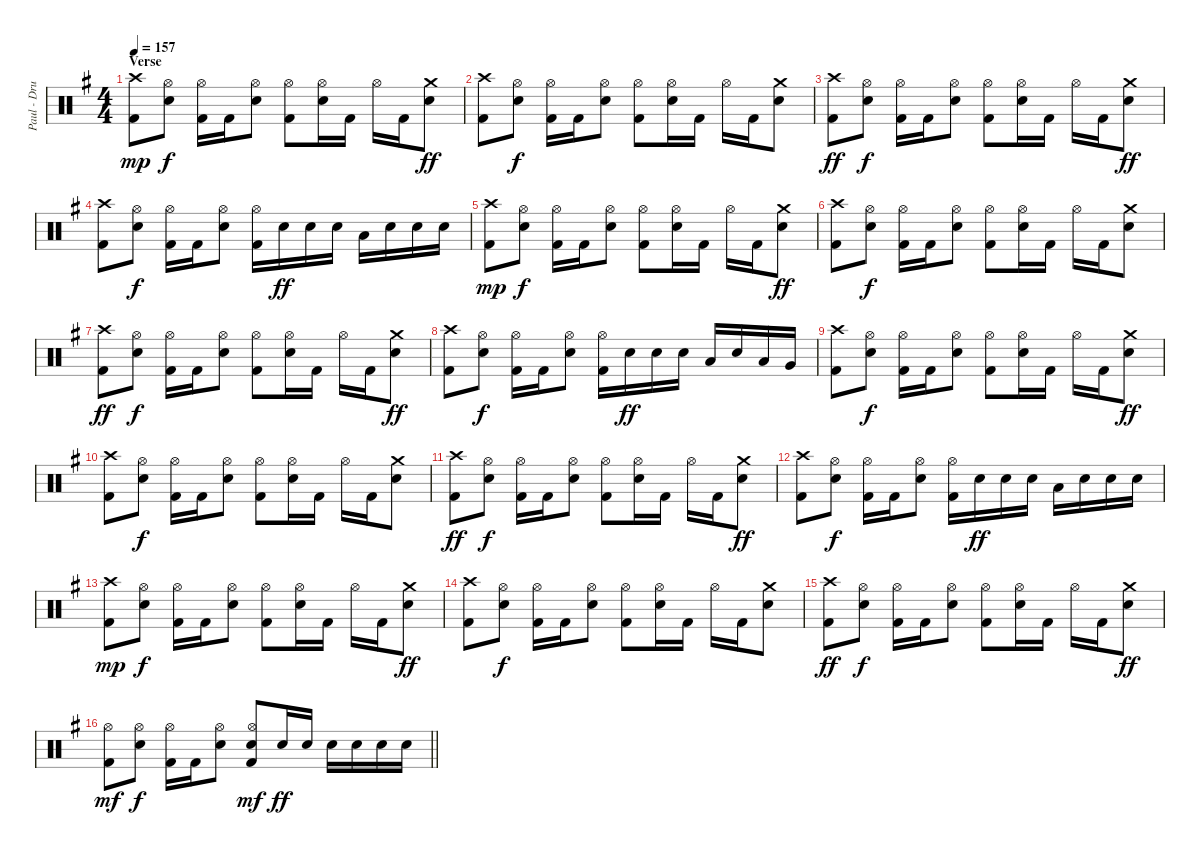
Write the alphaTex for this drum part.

\track ("Paul - Drums" "Paul - Dru") {instrument percussion}
\staff {score}
\articulation defaults
\ts (4 4)
\section ("" "Verse")
\tempo 157
\clef neutral
\ks g
("Crash high (hit)" "Kick (hit) 2").8{dy mp} ("Hi-Hat (open)" "Electric Snare (hit)").8{dy f} ("Hi-Hat (open)" "Kick (hit) 2").16 "Kick (hit) 2".16 ("Hi-Hat (open)" "Electric Snare (hit)").8 ("Hi-Hat (open)" "Kick (hit) 2").8 ("Hi-Hat (open)" "Electric Snare (hit)").16 "Kick (hit) 2".16 "Hi-Hat (open)".16 "Kick (hit) 2".16 ("Crash medium (hit)" "Electric Snare (hit)").8{dy ff} |
("Crash high (hit)" "Kick (hit) 2").8 ("Hi-Hat (open)" "Electric Snare (hit)").8{dy f} ("Hi-Hat (open)" "Kick (hit) 2").16 "Kick (hit) 2".16 ("Hi-Hat (open)" "Electric Snare (hit)").8 ("Hi-Hat (open)" "Kick (hit) 2").8 ("Hi-Hat (open)" "Electric Snare (hit)").16 "Kick (hit) 2".16 "Hi-Hat (open)".16 "Kick (hit) 2".16 ("Crash medium (hit)" "Electric Snare (hit)").8 |
("Crash high (hit)" "Kick (hit) 2").8{dy ff} ("Hi-Hat (open)" "Electric Snare (hit)").8{dy f} ("Hi-Hat (open)" "Kick (hit) 2").16 "Kick (hit) 2".16 ("Hi-Hat (open)" "Electric Snare (hit)").8 ("Hi-Hat (open)" "Kick (hit) 2").8 ("Hi-Hat (open)" "Electric Snare (hit)").16 "Kick (hit) 2".16 "Hi-Hat (open)".16 "Kick (hit) 2".16 ("Crash medium (hit)" "Electric Snare (hit)").8{dy ff} |
("Crash high (hit)" "Kick (hit) 2").8 ("Hi-Hat (open)" "Electric Snare (hit)").8{dy f} ("Hi-Hat (open)" "Kick (hit) 2").16 "Kick (hit) 2".16 ("Hi-Hat (open)" "Electric Snare (hit)").8 ("Hi-Hat (open)" "Kick (hit) 2").16 "Electric Snare (hit)".16{dy ff} "Electric Snare (hit)".16 "Electric Snare (hit)".16 "Low Tom (hit)".16 "Electric Snare (hit)".16 "Electric Snare (hit)".16 "Electric Snare (hit)".16 |
("Crash high (hit)" "Kick (hit) 2").8{dy mp} ("Hi-Hat (open)" "Electric Snare (hit)").8{dy f} ("Hi-Hat (open)" "Kick (hit) 2").16 "Kick (hit) 2".16 ("Hi-Hat (open)" "Electric Snare (hit)").8 ("Hi-Hat (open)" "Kick (hit) 2").8 ("Hi-Hat (open)" "Electric Snare (hit)").16 "Kick (hit) 2".16 "Hi-Hat (open)".16 "Kick (hit) 2".16 ("Crash medium (hit)" "Electric Snare (hit)").8{dy ff} |
("Crash high (hit)" "Kick (hit) 2").8 ("Hi-Hat (open)" "Electric Snare (hit)").8{dy f} ("Hi-Hat (open)" "Kick (hit) 2").16 "Kick (hit) 2".16 ("Hi-Hat (open)" "Electric Snare (hit)").8 ("Hi-Hat (open)" "Kick (hit) 2").8 ("Hi-Hat (open)" "Electric Snare (hit)").16 "Kick (hit) 2".16 "Hi-Hat (open)".16 "Kick (hit) 2".16 ("Crash medium (hit)" "Electric Snare (hit)").8 |
("Crash high (hit)" "Kick (hit) 2").8{dy ff} ("Hi-Hat (open)" "Electric Snare (hit)").8{dy f} ("Hi-Hat (open)" "Kick (hit) 2").16 "Kick (hit) 2".16 ("Hi-Hat (open)" "Electric Snare (hit)").8 ("Hi-Hat (open)" "Kick (hit) 2").8 ("Hi-Hat (open)" "Electric Snare (hit)").16 "Kick (hit) 2".16 "Hi-Hat (open)".16 "Kick (hit) 2".16 ("Crash medium (hit)" "Electric Snare (hit)").8{dy ff} |
("Crash high (hit)" "Kick (hit) 2").8 ("Hi-Hat (open)" "Electric Snare (hit)").8{dy f} ("Hi-Hat (open)" "Kick (hit) 2").16 "Kick (hit) 2".16 ("Hi-Hat (open)" "Electric Snare (hit)").8 ("Hi-Hat (open)" "Kick (hit) 2").16 "Electric Snare (hit)".16{dy ff} "Electric Snare (hit)".16 "Electric Snare (hit)".16 "Low Tom (hit)".16 "Electric Snare (hit)".16 "Low Tom (hit)".16 "Very Low Tom (hit)".16 |
("Crash high (hit)" "Kick (hit) 2").8 ("Hi-Hat (open)" "Electric Snare (hit)").8{dy f} ("Hi-Hat (open)" "Kick (hit) 2").16 "Kick (hit) 2".16 ("Hi-Hat (open)" "Electric Snare (hit)").8 ("Hi-Hat (open)" "Kick (hit) 2").8 ("Hi-Hat (open)" "Electric Snare (hit)").16 "Kick (hit) 2".16 "Hi-Hat (open)".16 "Kick (hit) 2".16 ("Crash medium (hit)" "Electric Snare (hit)").8{dy ff} |
("Crash high (hit)" "Kick (hit) 2").8 ("Hi-Hat (open)" "Electric Snare (hit)").8{dy f} ("Hi-Hat (open)" "Kick (hit) 2").16 "Kick (hit) 2".16 ("Hi-Hat (open)" "Electric Snare (hit)").8 ("Hi-Hat (open)" "Kick (hit) 2").8 ("Hi-Hat (open)" "Electric Snare (hit)").16 "Kick (hit) 2".16 "Hi-Hat (open)".16 "Kick (hit) 2".16 ("Crash medium (hit)" "Electric Snare (hit)").8 |
("Crash high (hit)" "Kick (hit) 2").8{dy ff} ("Hi-Hat (open)" "Electric Snare (hit)").8{dy f} ("Hi-Hat (open)" "Kick (hit) 2").16 "Kick (hit) 2".16 ("Hi-Hat (open)" "Electric Snare (hit)").8 ("Hi-Hat (open)" "Kick (hit) 2").8 ("Hi-Hat (open)" "Electric Snare (hit)").16 "Kick (hit) 2".16 "Hi-Hat (open)".16 "Kick (hit) 2".16 ("Crash medium (hit)" "Electric Snare (hit)").8{dy ff} |
("Crash high (hit)" "Kick (hit) 2").8 ("Hi-Hat (open)" "Electric Snare (hit)").8{dy f} ("Hi-Hat (open)" "Kick (hit) 2").16 "Kick (hit) 2".16 ("Hi-Hat (open)" "Electric Snare (hit)").8 ("Hi-Hat (open)" "Kick (hit) 2").16 "Electric Snare (hit)".16{dy ff} "Electric Snare (hit)".16 "Electric Snare (hit)".16 "Low Tom (hit)".16 "Electric Snare (hit)".16 "Electric Snare (hit)".16 "Electric Snare (hit)".16 |
("Crash high (hit)" "Kick (hit) 2").8{dy mp} ("Hi-Hat (open)" "Electric Snare (hit)").8{dy f} ("Hi-Hat (open)" "Kick (hit) 2").16 "Kick (hit) 2".16 ("Hi-Hat (open)" "Electric Snare (hit)").8 ("Hi-Hat (open)" "Kick (hit) 2").8 ("Hi-Hat (open)" "Electric Snare (hit)").16 "Kick (hit) 2".16 "Hi-Hat (open)".16 "Kick (hit) 2".16 ("Crash medium (hit)" "Electric Snare (hit)").8{dy ff} |
("Crash high (hit)" "Kick (hit) 2").8 ("Hi-Hat (open)" "Electric Snare (hit)").8{dy f} ("Hi-Hat (open)" "Kick (hit) 2").16 "Kick (hit) 2".16 ("Hi-Hat (open)" "Electric Snare (hit)").8 ("Hi-Hat (open)" "Kick (hit) 2").8 ("Hi-Hat (open)" "Electric Snare (hit)").16 "Kick (hit) 2".16 "Hi-Hat (open)".16 "Kick (hit) 2".16 ("Crash medium (hit)" "Electric Snare (hit)").8 |
("Crash high (hit)" "Kick (hit) 2").8{dy ff} ("Hi-Hat (open)" "Electric Snare (hit)").8{dy f} ("Hi-Hat (open)" "Kick (hit) 2").16 "Kick (hit) 2".16 ("Hi-Hat (open)" "Electric Snare (hit)").8 ("Hi-Hat (open)" "Kick (hit) 2").8 ("Hi-Hat (open)" "Electric Snare (hit)").16 "Kick (hit) 2".16 "Hi-Hat (open)".16 "Kick (hit) 2".16 ("Crash medium (hit)" "Electric Snare (hit)").8{dy ff} |
\barLineRight lightlight
("Hi-Hat (open)" "Kick (hit) 2").8{dy mf} ("Hi-Hat (open)" "Electric Snare (hit)").8{dy f} ("Hi-Hat (open)" "Kick (hit) 2").16 "Kick (hit) 2".16 ("Hi-Hat (open)" "Electric Snare (hit)").8 ("Hi-Hat (open)" "Electric Snare (hit)" "Kick (hit) 2").8{dy mf} "Electric Snare (hit)".16{dy ff} "Electric Snare (hit)".16 "Electric Snare (hit)".16 "Electric Snare (hit)".16 "Electric Snare (hit)".16 "Electric Snare (hit)".16
